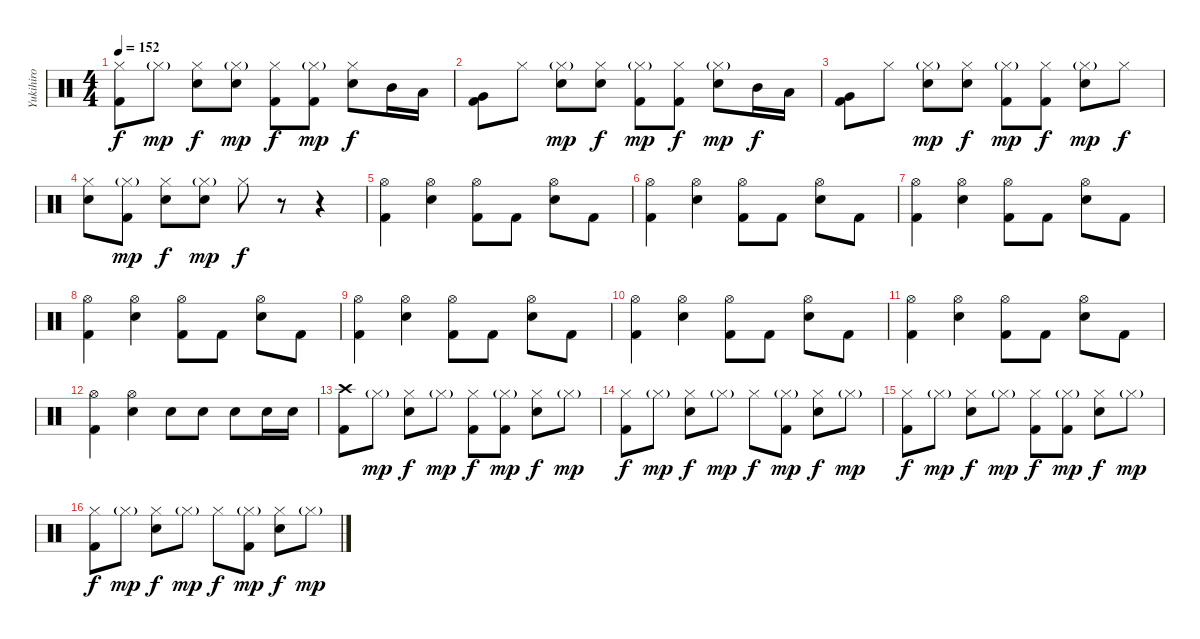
\track ("Yukihiro" "Yukihiro") {instrument percussion}
\staff {score}
\articulation defaults
\ts (4 4)
\tempo 152
\clef neutral
\ks c
("Hi-Hat (closed)" "Kick (hit) 2").8{dy f} "Hi-Hat (closed)"{g}.8{dy mp} ("Hi-Hat (closed)" "Electric Snare (hit)").8{dy f} ("Hi-Hat (closed)"{g} "Electric Snare (hit)").8{dy mp} ("Hi-Hat (closed)" "Kick (hit) 2").8{dy f} ("Hi-Hat (closed)"{g} "Kick (hit) 2").8{dy mp} ("Hi-Hat (closed)" "Electric Snare (hit)").8{dy f} "Mid Tom (hit)".16 "Low Tom (hit)".16 |
("Very Low Tom (hit)" "Kick (hit) 2").8 "Hi-Hat (closed)".8 ("Hi-Hat (closed)"{g} "Electric Snare (hit)").8{dy mp} ("Hi-Hat (closed)" "Electric Snare (hit)").8{dy f} ("Hi-Hat (closed)"{g} "Kick (hit) 2").8{dy mp} ("Hi-Hat (closed)" "Kick (hit) 2").8{dy f} ("Hi-Hat (closed)"{g} "Electric Snare (hit)").8{dy mp} "Mid Tom (hit)".16{dy f} "Low Tom (hit)".16 |
("Very Low Tom (hit)" "Kick (hit) 2").8 "Hi-Hat (closed)".8 ("Hi-Hat (closed)"{g} "Electric Snare (hit)").8{dy mp} ("Hi-Hat (closed)" "Electric Snare (hit)").8{dy f} ("Hi-Hat (closed)"{g} "Kick (hit) 2").8{dy mp} ("Hi-Hat (closed)" "Kick (hit) 2").8{dy f} ("Hi-Hat (closed)"{g} "Electric Snare (hit)").8{dy mp} "Hi-Hat (closed)".8{dy f} |
("Hi-Hat (closed)" "Electric Snare (hit)").8 ("Hi-Hat (closed)"{g} "Kick (hit) 2").8{dy mp} ("Hi-Hat (closed)" "Electric Snare (hit)").8{dy f} ("Hi-Hat (closed)"{g} "Electric Snare (hit)").8{dy mp} "Hi-Hat (closed)".8{dy f} r.8 r.4 |
("Hi-Hat (open)" "Kick (hit) 2").4 ("Hi-Hat (open)" "Electric Snare (hit)").4 ("Hi-Hat (open)" "Kick (hit) 2").8 "Kick (hit) 2".8 ("Hi-Hat (open)" "Electric Snare (hit)").8 "Kick (hit) 2".8 |
("Hi-Hat (open)" "Kick (hit) 2").4 ("Hi-Hat (open)" "Electric Snare (hit)").4 ("Hi-Hat (open)" "Kick (hit) 2").8 "Kick (hit) 2".8 ("Hi-Hat (open)" "Electric Snare (hit)").8 "Kick (hit) 2".8 |
("Hi-Hat (open)" "Kick (hit) 2").4 ("Hi-Hat (open)" "Electric Snare (hit)").4 ("Hi-Hat (open)" "Kick (hit) 2").8 "Kick (hit) 2".8 ("Hi-Hat (open)" "Electric Snare (hit)").8 "Kick (hit) 2".8 |
("Hi-Hat (open)" "Kick (hit) 2").4 ("Hi-Hat (open)" "Electric Snare (hit)").4 ("Hi-Hat (open)" "Kick (hit) 2").8 "Kick (hit) 2".8 ("Hi-Hat (open)" "Electric Snare (hit)").8 "Kick (hit) 2".8 |
("Hi-Hat (open)" "Kick (hit) 2").4 ("Hi-Hat (open)" "Electric Snare (hit)").4 ("Hi-Hat (open)" "Kick (hit) 2").8 "Kick (hit) 2".8 ("Hi-Hat (open)" "Electric Snare (hit)").8 "Kick (hit) 2".8 |
("Hi-Hat (open)" "Kick (hit) 2").4 ("Hi-Hat (open)" "Electric Snare (hit)").4 ("Hi-Hat (open)" "Kick (hit) 2").8 "Kick (hit) 2".8 ("Hi-Hat (open)" "Electric Snare (hit)").8 "Kick (hit) 2".8 |
("Hi-Hat (open)" "Kick (hit) 2").4 ("Hi-Hat (open)" "Electric Snare (hit)").4 ("Hi-Hat (open)" "Kick (hit) 2").8 "Kick (hit) 2".8 ("Hi-Hat (open)" "Electric Snare (hit)").8 "Kick (hit) 2".8 |
("Hi-Hat (open)" "Kick (hit) 2").4 ("Hi-Hat (open)" "Electric Snare (hit)").4 "Electric Snare (hit)".8 "Electric Snare (hit)".8 "Electric Snare (hit)".8 "Electric Snare (hit)".16 "Electric Snare (hit)".16 |
("Crash high (hit)" "Kick (hit) 2").8 "Hi-Hat (closed)"{g}.8{dy mp} ("Hi-Hat (closed)" "Electric Snare (hit)").8{dy f} "Hi-Hat (closed)"{g}.8{dy mp} ("Hi-Hat (closed)" "Kick (hit) 2").8{dy f} ("Hi-Hat (closed)"{g} "Kick (hit) 2").8{dy mp} ("Hi-Hat (closed)" "Electric Snare (hit)").8{dy f} "Hi-Hat (closed)"{g}.8{dy mp} |
("Hi-Hat (closed)" "Kick (hit) 2").8{dy f} "Hi-Hat (closed)"{g}.8{dy mp} ("Hi-Hat (closed)" "Electric Snare (hit)").8{dy f} "Hi-Hat (closed)"{g}.8{dy mp} "Hi-Hat (closed)".8{dy f} ("Hi-Hat (closed)"{g} "Kick (hit) 2").8{dy mp} ("Hi-Hat (closed)" "Electric Snare (hit)").8{dy f} "Hi-Hat (closed)"{g}.8{dy mp} |
("Hi-Hat (closed)" "Kick (hit) 2").8{dy f} "Hi-Hat (closed)"{g}.8{dy mp} ("Hi-Hat (closed)" "Electric Snare (hit)").8{dy f} "Hi-Hat (closed)"{g}.8{dy mp} ("Hi-Hat (closed)" "Kick (hit) 2").8{dy f} ("Hi-Hat (closed)"{g} "Kick (hit) 2").8{dy mp} ("Hi-Hat (closed)" "Electric Snare (hit)").8{dy f} "Hi-Hat (closed)"{g}.8{dy mp} |
("Hi-Hat (closed)" "Kick (hit) 2").8{dy f} "Hi-Hat (closed)"{g}.8{dy mp} ("Hi-Hat (closed)" "Electric Snare (hit)").8{dy f} "Hi-Hat (closed)"{g}.8{dy mp} "Hi-Hat (closed)".8{dy f} ("Hi-Hat (closed)"{g} "Kick (hit) 2").8{dy mp} ("Hi-Hat (closed)" "Electric Snare (hit)").8{dy f} "Hi-Hat (closed)"{g}.8{dy mp}
